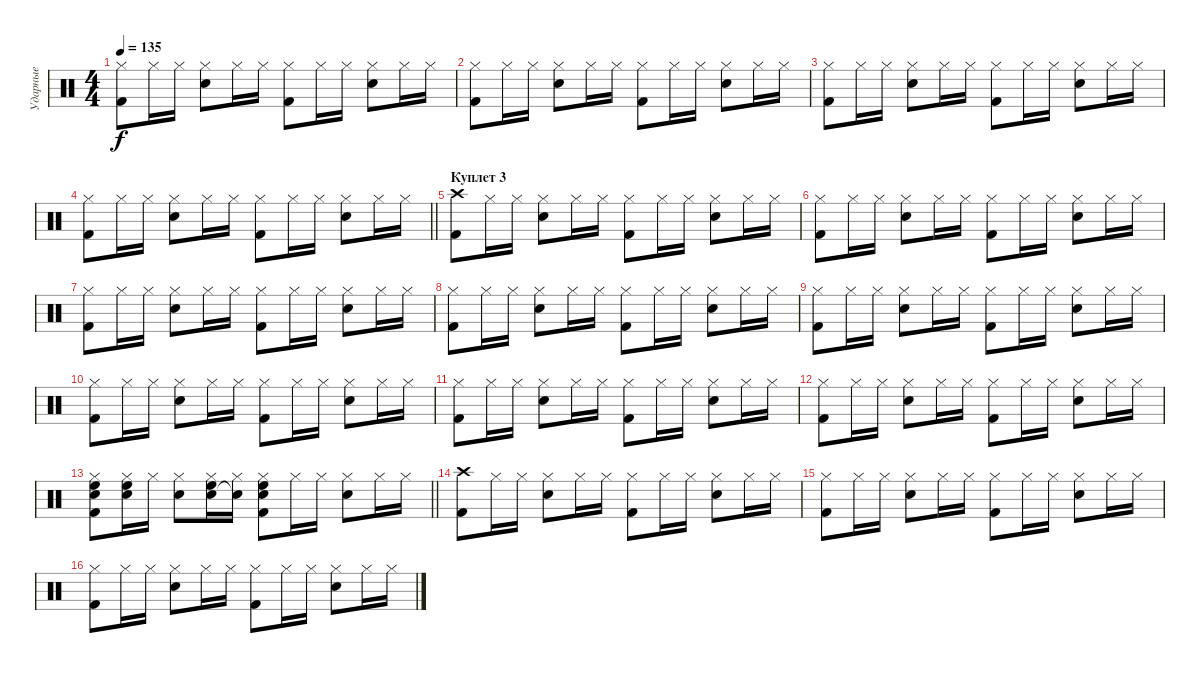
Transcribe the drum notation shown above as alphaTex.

\track ("Ударные" "Ударные") {instrument percussion}
\staff {score}
\articulation defaults
\ts (4 4)
\tempo 135
\clef neutral
\ks c
("Hi-Hat (closed)" "Kick (hit) 2").8{dy f} "Hi-Hat (closed)".16 "Hi-Hat (closed)".16 ("Hi-Hat (closed)" "Electric Snare (hit)").8 "Hi-Hat (closed)".16 "Hi-Hat (closed)".16 ("Hi-Hat (closed)" "Kick (hit) 2").8 "Hi-Hat (closed)".16 "Hi-Hat (closed)".16 ("Hi-Hat (closed)" "Electric Snare (hit)").8 "Hi-Hat (closed)".16 "Hi-Hat (closed)".16 |
("Hi-Hat (closed)" "Kick (hit) 2").8 "Hi-Hat (closed)".16 "Hi-Hat (closed)".16 ("Hi-Hat (closed)" "Electric Snare (hit)").8 "Hi-Hat (closed)".16 "Hi-Hat (closed)".16 ("Hi-Hat (closed)" "Kick (hit) 2").8 "Hi-Hat (closed)".16 "Hi-Hat (closed)".16 ("Hi-Hat (closed)" "Electric Snare (hit)").8 "Hi-Hat (closed)".16 "Hi-Hat (closed)".16 |
("Hi-Hat (closed)" "Kick (hit) 2").8 "Hi-Hat (closed)".16 "Hi-Hat (closed)".16 ("Hi-Hat (closed)" "Electric Snare (hit)").8 "Hi-Hat (closed)".16 "Hi-Hat (closed)".16 ("Hi-Hat (closed)" "Kick (hit) 2").8 "Hi-Hat (closed)".16 "Hi-Hat (closed)".16 ("Hi-Hat (closed)" "Electric Snare (hit)").8 "Hi-Hat (closed)".16 "Hi-Hat (closed)".16 |
\barLineRight lightlight
("Hi-Hat (closed)" "Kick (hit) 2").8 "Hi-Hat (closed)".16 "Hi-Hat (closed)".16 ("Hi-Hat (closed)" "Electric Snare (hit)").8 "Hi-Hat (closed)".16 "Hi-Hat (closed)".16 ("Hi-Hat (closed)" "Kick (hit) 2").8 "Hi-Hat (closed)".16 "Hi-Hat (closed)".16 ("Hi-Hat (closed)" "Electric Snare (hit)").8 "Hi-Hat (closed)".16 "Hi-Hat (closed)".16 |
\section ("" "Куплет 3")
("Crash high (hit)" "Kick (hit) 2").8 "Hi-Hat (closed)".16 "Hi-Hat (closed)".16 ("Hi-Hat (closed)" "Electric Snare (hit)").8 "Hi-Hat (closed)".16 "Hi-Hat (closed)".16 ("Hi-Hat (closed)" "Kick (hit) 2").8 "Hi-Hat (closed)".16 "Hi-Hat (closed)".16 ("Hi-Hat (closed)" "Electric Snare (hit)").8 "Hi-Hat (closed)".16 "Hi-Hat (closed)".16 |
("Hi-Hat (closed)" "Kick (hit) 2").8 "Hi-Hat (closed)".16 "Hi-Hat (closed)".16 ("Hi-Hat (closed)" "Electric Snare (hit)").8 "Hi-Hat (closed)".16 "Hi-Hat (closed)".16 ("Hi-Hat (closed)" "Kick (hit) 2").8 "Hi-Hat (closed)".16 "Hi-Hat (closed)".16 ("Hi-Hat (closed)" "Electric Snare (hit)").8 "Hi-Hat (closed)".16 "Hi-Hat (closed)".16 |
("Hi-Hat (closed)" "Kick (hit) 2").8 "Hi-Hat (closed)".16 "Hi-Hat (closed)".16 ("Hi-Hat (closed)" "Electric Snare (hit)").8 "Hi-Hat (closed)".16 "Hi-Hat (closed)".16 ("Hi-Hat (closed)" "Kick (hit) 2").8 "Hi-Hat (closed)".16 "Hi-Hat (closed)".16 ("Hi-Hat (closed)" "Electric Snare (hit)").8 "Hi-Hat (closed)".16 "Hi-Hat (closed)".16 |
("Hi-Hat (closed)" "Kick (hit) 2").8 "Hi-Hat (closed)".16 "Hi-Hat (closed)".16 ("Hi-Hat (closed)" "Electric Snare (hit)").8 "Hi-Hat (closed)".16 "Hi-Hat (closed)".16 ("Hi-Hat (closed)" "Kick (hit) 2").8 "Hi-Hat (closed)".16 "Hi-Hat (closed)".16 ("Hi-Hat (closed)" "Electric Snare (hit)").8 "Hi-Hat (closed)".16 "Hi-Hat (closed)".16 |
("Hi-Hat (closed)" "Kick (hit) 2").8 "Hi-Hat (closed)".16 "Hi-Hat (closed)".16 ("Hi-Hat (closed)" "Electric Snare (hit)").8 "Hi-Hat (closed)".16 "Hi-Hat (closed)".16 ("Hi-Hat (closed)" "Kick (hit) 2").8 "Hi-Hat (closed)".16 "Hi-Hat (closed)".16 ("Hi-Hat (closed)" "Electric Snare (hit)").8 "Hi-Hat (closed)".16 "Hi-Hat (closed)".16 |
("Hi-Hat (closed)" "Kick (hit) 2").8 "Hi-Hat (closed)".16 "Hi-Hat (closed)".16 ("Hi-Hat (closed)" "Electric Snare (hit)").8 "Hi-Hat (closed)".16 "Hi-Hat (closed)".16 ("Hi-Hat (closed)" "Kick (hit) 2").8 "Hi-Hat (closed)".16 "Hi-Hat (closed)".16 ("Hi-Hat (closed)" "Electric Snare (hit)").8 "Hi-Hat (closed)".16 "Hi-Hat (closed)".16 |
("Hi-Hat (closed)" "Kick (hit) 2").8 "Hi-Hat (closed)".16 "Hi-Hat (closed)".16 ("Hi-Hat (closed)" "Electric Snare (hit)").8 "Hi-Hat (closed)".16 "Hi-Hat (closed)".16 ("Hi-Hat (closed)" "Kick (hit) 2").8 "Hi-Hat (closed)".16 "Hi-Hat (closed)".16 ("Hi-Hat (closed)" "Electric Snare (hit)").8 "Hi-Hat (closed)".16 "Hi-Hat (closed)".16 |
("Hi-Hat (closed)" "Kick (hit) 2").8 "Hi-Hat (closed)".16 "Hi-Hat (closed)".16 ("Hi-Hat (closed)" "Electric Snare (hit)").8 "Hi-Hat (closed)".16 "Hi-Hat (closed)".16 ("Hi-Hat (closed)" "Kick (hit) 2").8 "Hi-Hat (closed)".16 "Hi-Hat (closed)".16 ("Hi-Hat (closed)" "Electric Snare (hit)").8 "Hi-Hat (closed)".16 "Hi-Hat (closed)".16 |
\barLineRight lightlight
("Hi-Hat (closed)" "Kick (hit) 2" "Snare (hit) 2" "High Floor Tom (hit)").8 ("Hi-Hat (closed)" "Snare (hit) 2" "High Floor Tom (hit)").16 "Hi-Hat (closed)".16 ("Hi-Hat (closed)" "Electric Snare (hit)").8 ("Hi-Hat (closed)" "Snare (hit) 2" "High Floor Tom (hit)").16 ("Hi-Hat (closed)" "Snare (hit)"{t}).16 ("Hi-Hat (closed)" "Kick (hit) 2" "Snare (hit) 2" "High Floor Tom (hit)").8 "Hi-Hat (closed)".16 "Hi-Hat (closed)".16 ("Hi-Hat (closed)" "Electric Snare (hit)").8 "Hi-Hat (closed)".16 "Hi-Hat (closed)".16 |
("Crash high (hit)" "Kick (hit) 2").8 "Hi-Hat (closed)".16 "Hi-Hat (closed)".16 ("Hi-Hat (closed)" "Electric Snare (hit)").8 "Hi-Hat (closed)".16 "Hi-Hat (closed)".16 ("Hi-Hat (closed)" "Kick (hit) 2").8 "Hi-Hat (closed)".16 "Hi-Hat (closed)".16 ("Hi-Hat (closed)" "Electric Snare (hit)").8 "Hi-Hat (closed)".16 "Hi-Hat (closed)".16 |
("Hi-Hat (closed)" "Kick (hit) 2").8 "Hi-Hat (closed)".16 "Hi-Hat (closed)".16 ("Hi-Hat (closed)" "Electric Snare (hit)").8 "Hi-Hat (closed)".16 "Hi-Hat (closed)".16 ("Hi-Hat (closed)" "Kick (hit) 2").8 "Hi-Hat (closed)".16 "Hi-Hat (closed)".16 ("Hi-Hat (closed)" "Electric Snare (hit)").8 "Hi-Hat (closed)".16 "Hi-Hat (closed)".16 |
("Hi-Hat (closed)" "Kick (hit) 2").8 "Hi-Hat (closed)".16 "Hi-Hat (closed)".16 ("Hi-Hat (closed)" "Electric Snare (hit)").8 "Hi-Hat (closed)".16 "Hi-Hat (closed)".16 ("Hi-Hat (closed)" "Kick (hit) 2").8 "Hi-Hat (closed)".16 "Hi-Hat (closed)".16 ("Hi-Hat (closed)" "Electric Snare (hit)").8 "Hi-Hat (closed)".16 "Hi-Hat (closed)".16
